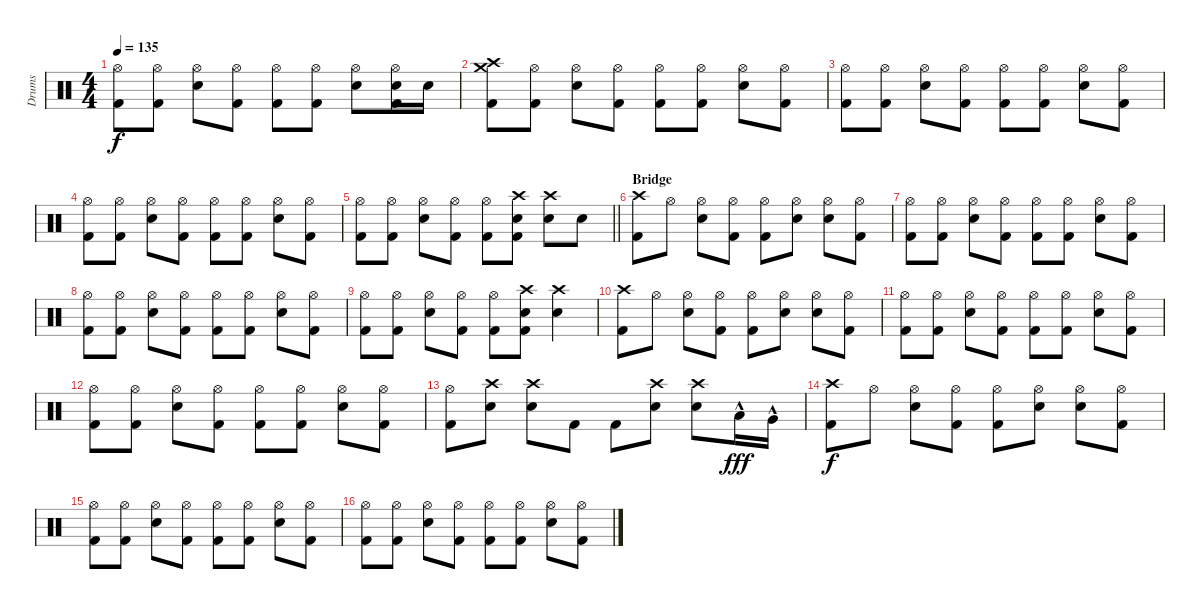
\track ("Drums" "Drums") {instrument percussion}
\staff {score}
\articulation defaults
\ts (4 4)
\tempo 135
\clef neutral
\ks c
("Hi-Hat (open)" "Kick (hit) 2").8{dy f} ("Hi-Hat (open)" "Kick (hit) 2").8 ("Hi-Hat (open)" "Electric Snare (hit)").8 ("Hi-Hat (open)" "Kick (hit) 2").8 ("Hi-Hat (open)" "Kick (hit) 2").8 ("Hi-Hat (open)" "Kick (hit) 2").8 ("Hi-Hat (open)" "Electric Snare (hit)").8 ("Hi-Hat (open)" "Electric Snare (hit)" "Kick (hit) 2").16 "Electric Snare (hit)".16 |
("Crash high (hit)" "Crash medium (hit)" "Kick (hit) 2").8 ("Hi-Hat (open)" "Kick (hit) 2").8 ("Hi-Hat (open)" "Electric Snare (hit)").8 ("Hi-Hat (open)" "Kick (hit) 2").8 ("Hi-Hat (open)" "Kick (hit) 2").8 ("Hi-Hat (open)" "Kick (hit) 2").8 ("Hi-Hat (open)" "Electric Snare (hit)").8 ("Hi-Hat (open)" "Kick (hit) 2").8 |
("Hi-Hat (open)" "Kick (hit) 2").8 ("Hi-Hat (open)" "Kick (hit) 2").8 ("Hi-Hat (open)" "Electric Snare (hit)").8 ("Hi-Hat (open)" "Kick (hit) 2").8 ("Hi-Hat (open)" "Kick (hit) 2").8 ("Hi-Hat (open)" "Kick (hit) 2").8 ("Hi-Hat (open)" "Electric Snare (hit)").8 ("Hi-Hat (open)" "Kick (hit) 2").8 |
("Hi-Hat (open)" "Kick (hit) 2").8 ("Hi-Hat (open)" "Kick (hit) 2").8 ("Hi-Hat (open)" "Electric Snare (hit)").8 ("Hi-Hat (open)" "Kick (hit) 2").8 ("Hi-Hat (open)" "Kick (hit) 2").8 ("Hi-Hat (open)" "Kick (hit) 2").8 ("Hi-Hat (open)" "Electric Snare (hit)").8 ("Hi-Hat (open)" "Kick (hit) 2").8 |
\barLineRight lightlight
("Hi-Hat (open)" "Kick (hit) 2").8 ("Hi-Hat (open)" "Kick (hit) 2").8 ("Hi-Hat (open)" "Electric Snare (hit)").8 ("Hi-Hat (open)" "Kick (hit) 2").8 ("Hi-Hat (open)" "Kick (hit) 2").8 ("Crash high (hit)" "Electric Snare (hit)" "Kick (hit) 2").8 ("Crash high (hit)" "Electric Snare (hit)").8 "Electric Snare (hit)".8 |
\section ("" "Bridge")
("Crash high (hit)" "Kick (hit) 2").8 "Hi-Hat (open)".8 ("Hi-Hat (open)" "Electric Snare (hit)").8 ("Hi-Hat (open)" "Kick (hit) 2").8 ("Hi-Hat (open)" "Kick (hit) 2").8 ("Hi-Hat (open)" "Electric Snare (hit)").8 ("Hi-Hat (open)" "Electric Snare (hit)").8 ("Hi-Hat (open)" "Kick (hit) 2").8 |
("Hi-Hat (open)" "Kick (hit) 2").8 ("Hi-Hat (open)" "Kick (hit) 2").8 ("Hi-Hat (open)" "Electric Snare (hit)").8 ("Hi-Hat (open)" "Kick (hit) 2").8 ("Hi-Hat (open)" "Kick (hit) 2").8 ("Hi-Hat (open)" "Kick (hit) 2").8 ("Hi-Hat (open)" "Electric Snare (hit)").8 ("Hi-Hat (open)" "Kick (hit) 2").8 |
("Hi-Hat (open)" "Kick (hit) 2").8 ("Hi-Hat (open)" "Kick (hit) 2").8 ("Hi-Hat (open)" "Electric Snare (hit)").8 ("Hi-Hat (open)" "Kick (hit) 2").8 ("Hi-Hat (open)" "Kick (hit) 2").8 ("Hi-Hat (open)" "Kick (hit) 2").8 ("Hi-Hat (open)" "Electric Snare (hit)").8 ("Hi-Hat (open)" "Kick (hit) 2").8 |
("Hi-Hat (open)" "Kick (hit) 2").8 ("Hi-Hat (open)" "Kick (hit) 2").8 ("Hi-Hat (open)" "Electric Snare (hit)").8 ("Hi-Hat (open)" "Kick (hit) 2").8 ("Hi-Hat (open)" "Kick (hit) 2").8 ("Crash high (hit)" "Electric Snare (hit)" "Kick (hit) 2").8 ("Crash high (hit)" "Electric Snare (hit)").4 |
("Crash high (hit)" "Kick (hit) 2").8 "Hi-Hat (open)".8 ("Hi-Hat (open)" "Electric Snare (hit)").8 ("Hi-Hat (open)" "Kick (hit) 2").8 ("Hi-Hat (open)" "Kick (hit) 2").8 ("Hi-Hat (open)" "Electric Snare (hit)").8 ("Hi-Hat (open)" "Electric Snare (hit)").8 ("Hi-Hat (open)" "Kick (hit) 2").8 |
("Hi-Hat (open)" "Kick (hit) 2").8 ("Hi-Hat (open)" "Kick (hit) 2").8 ("Hi-Hat (open)" "Electric Snare (hit)").8 ("Hi-Hat (open)" "Kick (hit) 2").8 ("Hi-Hat (open)" "Kick (hit) 2").8 ("Hi-Hat (open)" "Kick (hit) 2").8 ("Hi-Hat (open)" "Electric Snare (hit)").8 ("Hi-Hat (open)" "Kick (hit) 2").8 |
("Hi-Hat (open)" "Kick (hit) 2").8 ("Hi-Hat (open)" "Kick (hit) 2").8 ("Hi-Hat (open)" "Electric Snare (hit)").8 ("Hi-Hat (open)" "Kick (hit) 2").8 ("Hi-Hat (open)" "Kick (hit) 2").8 ("Hi-Hat (open)" "Kick (hit) 2").8 ("Hi-Hat (open)" "Electric Snare (hit)").8 ("Hi-Hat (open)" "Kick (hit) 2").8 |
("Hi-Hat (open)" "Kick (hit) 2").8 ("Crash high (hit)" "Electric Snare (hit)").8 ("Crash high (hit)" "Electric Snare (hit)").8 "Kick (hit) 2".8 "Kick (hit) 2".8 ("Crash high (hit)" "Electric Snare (hit)").8 ("Crash high (hit)" "Electric Snare (hit)").8 "Low Tom (hit)"{hac}.16{dy fff} "Very Low Tom (hit)"{hac}.16 |
("Crash high (hit)" "Kick (hit) 2").8{dy f} "Hi-Hat (open)".8 ("Hi-Hat (open)" "Electric Snare (hit)").8 ("Hi-Hat (open)" "Kick (hit) 2").8 ("Hi-Hat (open)" "Kick (hit) 2").8 ("Hi-Hat (open)" "Electric Snare (hit)").8 ("Hi-Hat (open)" "Electric Snare (hit)").8 ("Hi-Hat (open)" "Kick (hit) 2").8 |
("Hi-Hat (open)" "Kick (hit) 2").8 ("Hi-Hat (open)" "Kick (hit) 2").8 ("Hi-Hat (open)" "Electric Snare (hit)").8 ("Hi-Hat (open)" "Kick (hit) 2").8 ("Hi-Hat (open)" "Kick (hit) 2").8 ("Hi-Hat (open)" "Kick (hit) 2").8 ("Hi-Hat (open)" "Electric Snare (hit)").8 ("Hi-Hat (open)" "Kick (hit) 2").8 |
("Hi-Hat (open)" "Kick (hit) 2").8 ("Hi-Hat (open)" "Kick (hit) 2").8 ("Hi-Hat (open)" "Electric Snare (hit)").8 ("Hi-Hat (open)" "Kick (hit) 2").8 ("Hi-Hat (open)" "Kick (hit) 2").8 ("Hi-Hat (open)" "Kick (hit) 2").8 ("Hi-Hat (open)" "Electric Snare (hit)").8 ("Hi-Hat (open)" "Kick (hit) 2").8
